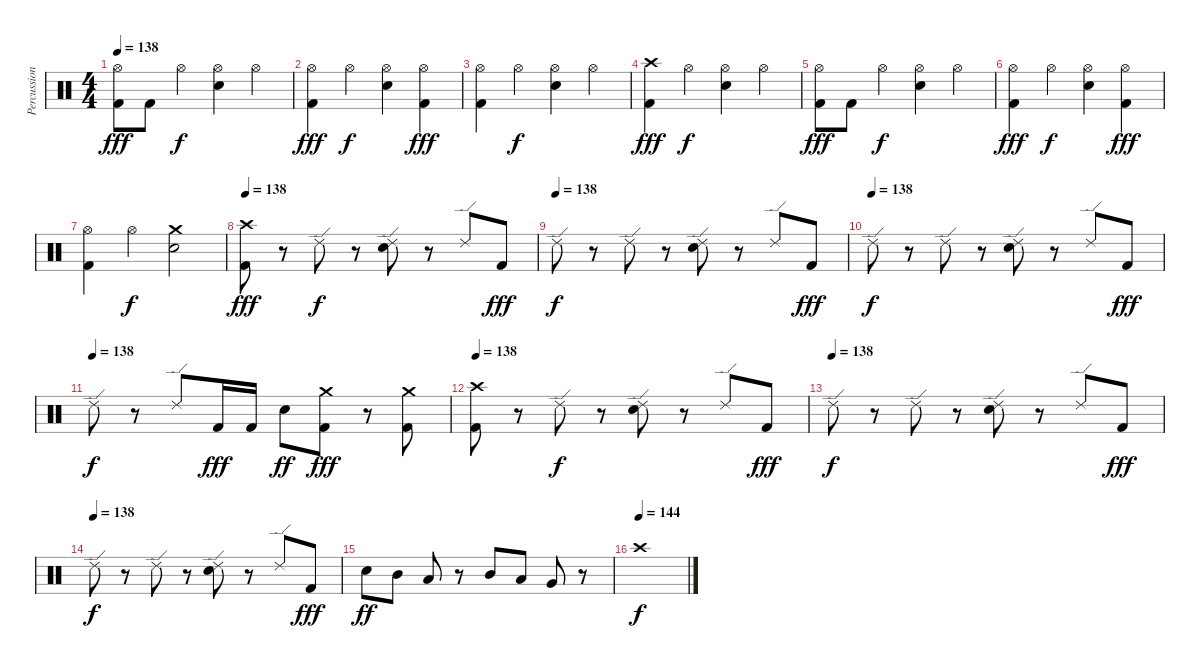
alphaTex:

\track ("Percussion" "Percussion") {instrument percussion}
\staff {score}
\articulation defaults
\ts (4 4)
\tempo 138
\clef neutral
\ks c
("Hi-Hat (open)" "Kick (hit) 2").8{dy fff} "Kick (hit) 2".8 "Hi-Hat (open)".4{dy f} ("Hi-Hat (open)" "Snare (hit) 2").4 "Hi-Hat (open)".4 |
("Hi-Hat (open)" "Kick (hit) 2").4{dy fff} "Hi-Hat (open)".4{dy f} ("Hi-Hat (open)" "Snare (hit) 2").4 ("Hi-Hat (open)" "Kick (hit) 2").4{dy fff} |
("Hi-Hat (open)" "Kick (hit) 2").4 "Hi-Hat (open)".4{dy f} ("Hi-Hat (open)" "Snare (hit) 2").4 "Hi-Hat (open)".4 |
("Crash high (hit)" "Kick (hit) 2").4{dy fff} "Hi-Hat (open)".4{dy f} ("Hi-Hat (open)" "Snare (hit) 2").4 "Hi-Hat (open)".4 |
("Hi-Hat (open)" "Kick (hit) 2").8{dy fff} "Kick (hit) 2".8 "Hi-Hat (open)".4{dy f} ("Hi-Hat (open)" "Snare (hit) 2").4 "Hi-Hat (open)".4 |
("Hi-Hat (open)" "Kick (hit) 2").4{dy fff} "Hi-Hat (open)".4{dy f} ("Hi-Hat (open)" "Snare (hit) 2").4 ("Hi-Hat (open)" "Kick (hit) 2").4{dy fff} |
("Hi-Hat (open)" "Kick (hit) 2").4 "Hi-Hat (open)".4{dy f} ("Crash medium (hit)" "Snare (hit) 2").2 |
\tempo 138
("Crash high (hit)" "Kick (hit) 2").8{dy fff} r.8 "Ride (edge) 2".8{dy f} r.8 ("Ride (edge) 2" "Snare (hit) 2").8 r.8 "Ride (edge) 2".8 "Kick (hit) 2".8{dy fff} |
\tempo (138)
"Ride (edge) 2".8{dy f} r.8 "Ride (edge) 2".8 r.8 ("Ride (edge) 2" "Snare (hit) 2").8 r.8 "Ride (edge) 2".8 "Kick (hit) 2".8{dy fff} |
\tempo (138)
"Ride (edge) 2".8{dy f} r.8 "Ride (edge) 2".8 r.8 ("Ride (edge) 2" "Snare (hit) 2").8 r.8 "Ride (edge) 2".8 "Kick (hit) 2".8{dy fff} |
\tempo (138)
"Ride (edge) 2".8{dy f} r.8 "Ride (edge) 2".8 "Kick (hit) 2".16{dy fff} "Kick (hit) 2".16 "Snare (hit) 2".8{dy ff} ("Crash medium (hit)" "Kick (hit) 2").8{dy fff} r.8 ("Crash medium (hit)" "Kick (hit) 2").8 |
\tempo 138
("Crash high (hit)" "Kick (hit) 2").8 r.8 "Ride (edge) 2".8{dy f} r.8 ("Ride (edge) 2" "Snare (hit) 2").8 r.8 "Ride (edge) 2".8 "Kick (hit) 2".8{dy fff} |
\tempo (138)
"Ride (edge) 2".8{dy f} r.8 "Ride (edge) 2".8 r.8 ("Ride (edge) 2" "Snare (hit) 2").8 r.8 "Ride (edge) 2".8 "Kick (hit) 2".8{dy fff} |
\tempo (138)
"Ride (edge) 2".8{dy f} r.8 "Ride (edge) 2".8 r.8 ("Ride (edge) 2" "Snare (hit) 2").8 r.8 "Ride (edge) 2".8 "Kick (hit) 2".8{dy fff} |
"Snare (hit) 2".8{dy ff} "Mid Tom (hit)".8 "Low Tom (hit)".8 r.8 "Mid Tom (hit)".8 "Low Tom (hit)".8 "Very Low Tom (hit)".8 r.8 |
\tempo (144)
"Crash high (hit)".1{dy f}
